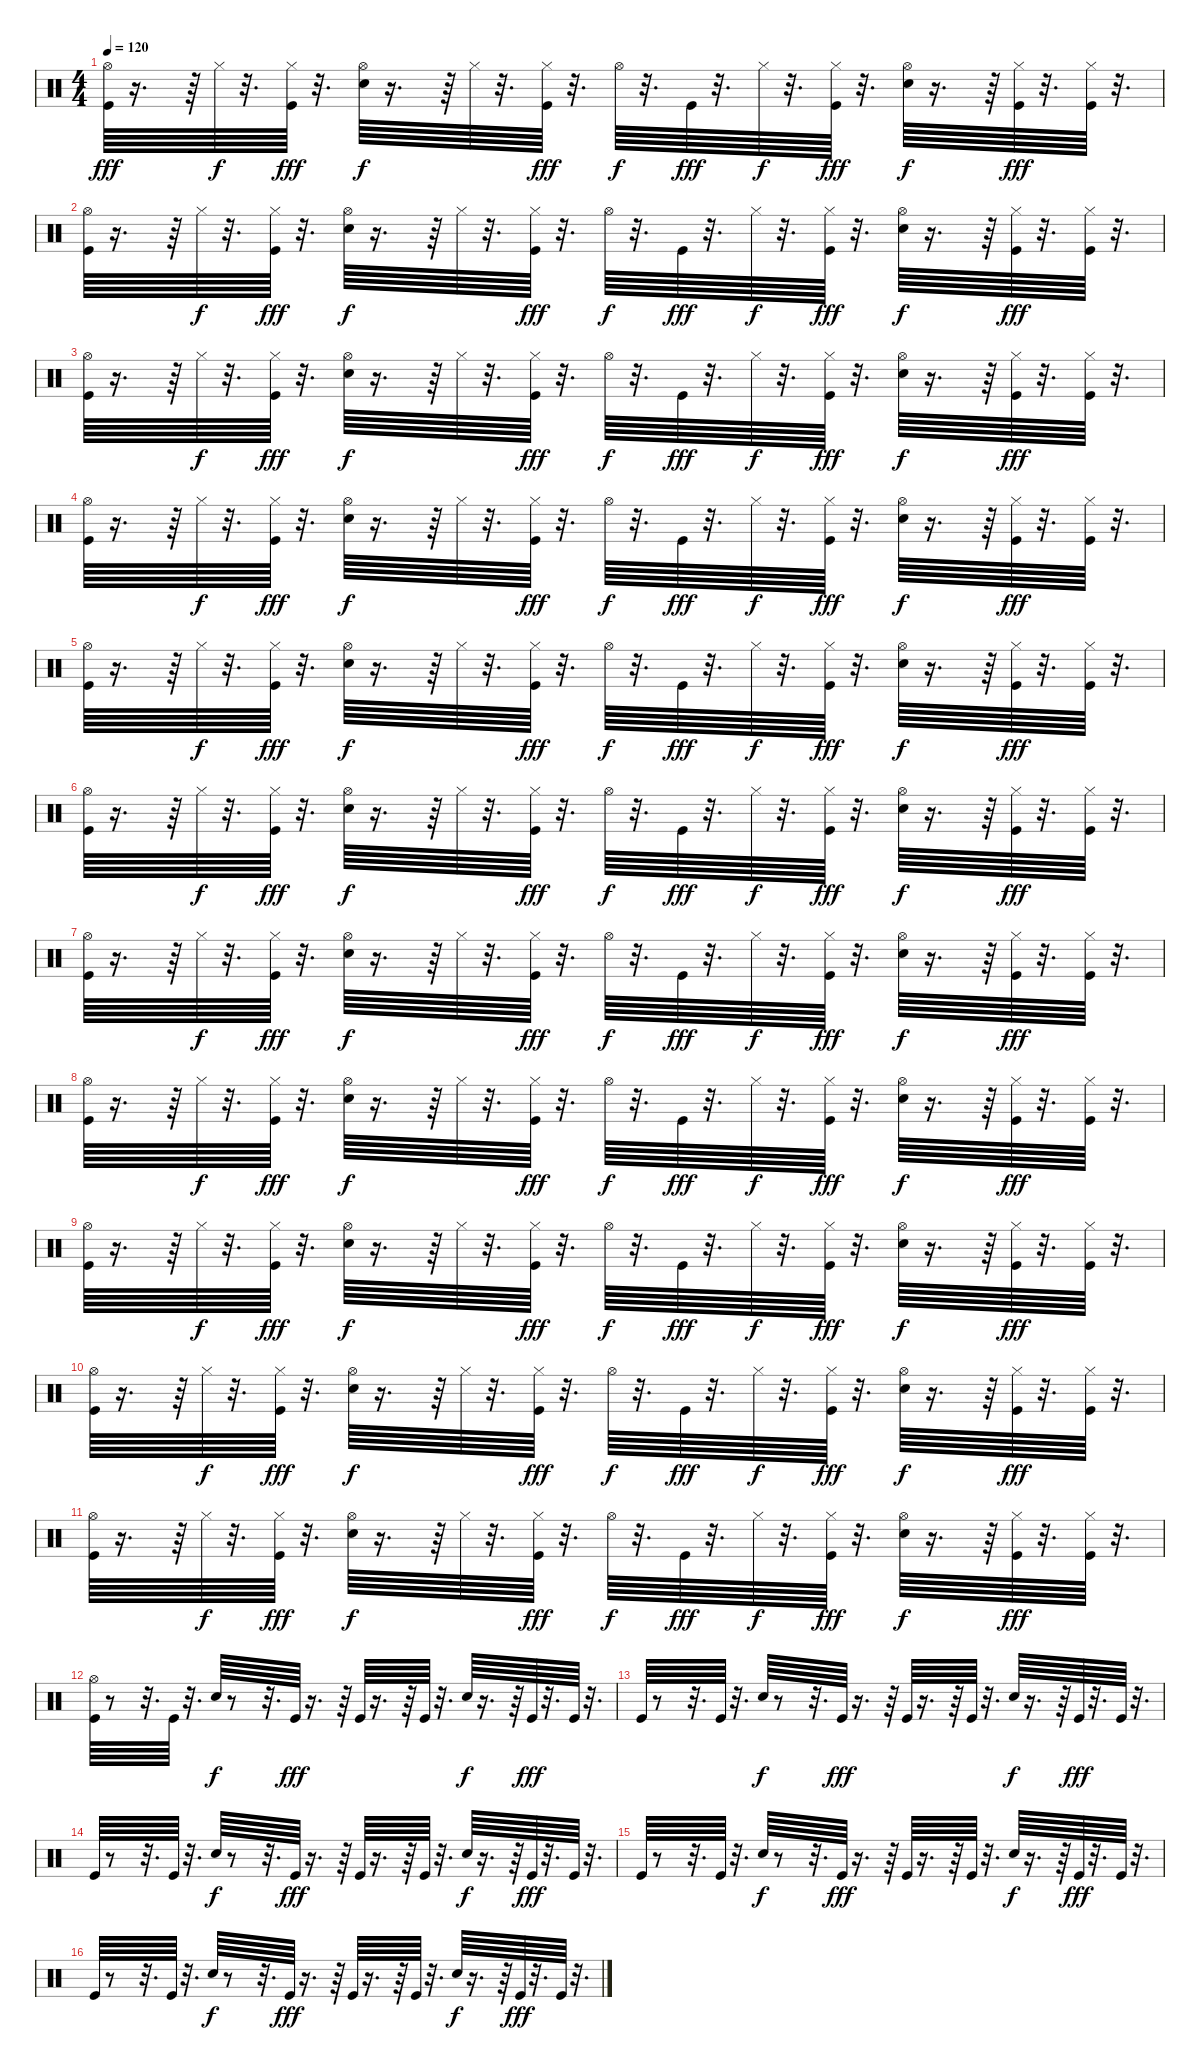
\track "" {instrument percussion}
\staff {score}
\articulation defaults
\ts (4 4)
\tempo 120
\clef neutral
\ks c
("Kick (hit)" "Hi-Hat (open)").64{dy fff} r.16{d} r.64 "Hi-Hat (closed)".64{dy f} r.32{d} ("Kick (hit)" "Hi-Hat (closed)").64{dy fff} r.32{d} ("Snare (hit) 2" "Hi-Hat (open)").64{dy f} r.16{d} r.64 "Hi-Hat (closed)".64 r.32{d} ("Kick (hit)" "Hi-Hat (closed)").64{dy fff} r.32{d} "Hi-Hat (open)".64{dy f} r.32{d} "Kick (hit)".64{dy fff} r.32{d} "Hi-Hat (closed)".64{dy f} r.32{d} ("Kick (hit)" "Hi-Hat (closed)").64{dy fff} r.32{d} ("Snare (hit) 2" "Hi-Hat (open)").64{dy f} r.16{d} r.64 ("Kick (hit)" "Hi-Hat (closed)").64{dy fff} r.32{d} ("Kick (hit)" "Hi-Hat (closed)").64 r.32{d} |
("Kick (hit)" "Hi-Hat (open)").64 r.16{d} r.64 "Hi-Hat (closed)".64{dy f} r.32{d} ("Kick (hit)" "Hi-Hat (closed)").64{dy fff} r.32{d} ("Snare (hit) 2" "Hi-Hat (open)").64{dy f} r.16{d} r.64 "Hi-Hat (closed)".64 r.32{d} ("Kick (hit)" "Hi-Hat (closed)").64{dy fff} r.32{d} "Hi-Hat (open)".64{dy f} r.32{d} "Kick (hit)".64{dy fff} r.32{d} "Hi-Hat (closed)".64{dy f} r.32{d} ("Kick (hit)" "Hi-Hat (closed)").64{dy fff} r.32{d} ("Snare (hit) 2" "Hi-Hat (open)").64{dy f} r.16{d} r.64 ("Kick (hit)" "Hi-Hat (closed)").64{dy fff} r.32{d} ("Kick (hit)" "Hi-Hat (closed)").64 r.32{d} |
("Kick (hit)" "Hi-Hat (open)").64 r.16{d} r.64 "Hi-Hat (closed)".64{dy f} r.32{d} ("Kick (hit)" "Hi-Hat (closed)").64{dy fff} r.32{d} ("Snare (hit) 2" "Hi-Hat (open)").64{dy f} r.16{d} r.64 "Hi-Hat (closed)".64 r.32{d} ("Kick (hit)" "Hi-Hat (closed)").64{dy fff} r.32{d} "Hi-Hat (open)".64{dy f} r.32{d} "Kick (hit)".64{dy fff} r.32{d} "Hi-Hat (closed)".64{dy f} r.32{d} ("Kick (hit)" "Hi-Hat (closed)").64{dy fff} r.32{d} ("Snare (hit) 2" "Hi-Hat (open)").64{dy f} r.16{d} r.64 ("Kick (hit)" "Hi-Hat (closed)").64{dy fff} r.32{d} ("Kick (hit)" "Hi-Hat (closed)").64 r.32{d} |
("Kick (hit)" "Hi-Hat (open)").64 r.16{d} r.64 "Hi-Hat (closed)".64{dy f} r.32{d} ("Kick (hit)" "Hi-Hat (closed)").64{dy fff} r.32{d} ("Snare (hit) 2" "Hi-Hat (open)").64{dy f} r.16{d} r.64 "Hi-Hat (closed)".64 r.32{d} ("Kick (hit)" "Hi-Hat (closed)").64{dy fff} r.32{d} "Hi-Hat (open)".64{dy f} r.32{d} "Kick (hit)".64{dy fff} r.32{d} "Hi-Hat (closed)".64{dy f} r.32{d} ("Kick (hit)" "Hi-Hat (closed)").64{dy fff} r.32{d} ("Snare (hit) 2" "Hi-Hat (open)").64{dy f} r.16{d} r.64 ("Kick (hit)" "Hi-Hat (closed)").64{dy fff} r.32{d} ("Kick (hit)" "Hi-Hat (closed)").64 r.32{d} |
("Kick (hit)" "Hi-Hat (open)").64 r.16{d} r.64 "Hi-Hat (closed)".64{dy f} r.32{d} ("Kick (hit)" "Hi-Hat (closed)").64{dy fff} r.32{d} ("Snare (hit) 2" "Hi-Hat (open)").64{dy f} r.16{d} r.64 "Hi-Hat (closed)".64 r.32{d} ("Kick (hit)" "Hi-Hat (closed)").64{dy fff} r.32{d} "Hi-Hat (open)".64{dy f} r.32{d} "Kick (hit)".64{dy fff} r.32{d} "Hi-Hat (closed)".64{dy f} r.32{d} ("Kick (hit)" "Hi-Hat (closed)").64{dy fff} r.32{d} ("Snare (hit) 2" "Hi-Hat (open)").64{dy f} r.16{d} r.64 ("Kick (hit)" "Hi-Hat (closed)").64{dy fff} r.32{d} ("Kick (hit)" "Hi-Hat (closed)").64 r.32{d} |
("Kick (hit)" "Hi-Hat (open)").64 r.16{d} r.64 "Hi-Hat (closed)".64{dy f} r.32{d} ("Kick (hit)" "Hi-Hat (closed)").64{dy fff} r.32{d} ("Snare (hit) 2" "Hi-Hat (open)").64{dy f} r.16{d} r.64 "Hi-Hat (closed)".64 r.32{d} ("Kick (hit)" "Hi-Hat (closed)").64{dy fff} r.32{d} "Hi-Hat (open)".64{dy f} r.32{d} "Kick (hit)".64{dy fff} r.32{d} "Hi-Hat (closed)".64{dy f} r.32{d} ("Kick (hit)" "Hi-Hat (closed)").64{dy fff} r.32{d} ("Snare (hit) 2" "Hi-Hat (open)").64{dy f} r.16{d} r.64 ("Kick (hit)" "Hi-Hat (closed)").64{dy fff} r.32{d} ("Kick (hit)" "Hi-Hat (closed)").64 r.32{d} |
("Kick (hit)" "Hi-Hat (open)").64 r.16{d} r.64 "Hi-Hat (closed)".64{dy f} r.32{d} ("Kick (hit)" "Hi-Hat (closed)").64{dy fff} r.32{d} ("Snare (hit) 2" "Hi-Hat (open)").64{dy f} r.16{d} r.64 "Hi-Hat (closed)".64 r.32{d} ("Kick (hit)" "Hi-Hat (closed)").64{dy fff} r.32{d} "Hi-Hat (open)".64{dy f} r.32{d} "Kick (hit)".64{dy fff} r.32{d} "Hi-Hat (closed)".64{dy f} r.32{d} ("Kick (hit)" "Hi-Hat (closed)").64{dy fff} r.32{d} ("Snare (hit) 2" "Hi-Hat (open)").64{dy f} r.16{d} r.64 ("Kick (hit)" "Hi-Hat (closed)").64{dy fff} r.32{d} ("Kick (hit)" "Hi-Hat (closed)").64 r.32{d} |
("Kick (hit)" "Hi-Hat (open)").64 r.16{d} r.64 "Hi-Hat (closed)".64{dy f} r.32{d} ("Kick (hit)" "Hi-Hat (closed)").64{dy fff} r.32{d} ("Snare (hit) 2" "Hi-Hat (open)").64{dy f} r.16{d} r.64 "Hi-Hat (closed)".64 r.32{d} ("Kick (hit)" "Hi-Hat (closed)").64{dy fff} r.32{d} "Hi-Hat (open)".64{dy f} r.32{d} "Kick (hit)".64{dy fff} r.32{d} "Hi-Hat (closed)".64{dy f} r.32{d} ("Kick (hit)" "Hi-Hat (closed)").64{dy fff} r.32{d} ("Snare (hit) 2" "Hi-Hat (open)").64{dy f} r.16{d} r.64 ("Kick (hit)" "Hi-Hat (closed)").64{dy fff} r.32{d} ("Kick (hit)" "Hi-Hat (closed)").64 r.32{d} |
("Kick (hit)" "Hi-Hat (open)").64 r.16{d} r.64 "Hi-Hat (closed)".64{dy f} r.32{d} ("Kick (hit)" "Hi-Hat (closed)").64{dy fff} r.32{d} ("Snare (hit) 2" "Hi-Hat (open)").64{dy f} r.16{d} r.64 "Hi-Hat (closed)".64 r.32{d} ("Kick (hit)" "Hi-Hat (closed)").64{dy fff} r.32{d} "Hi-Hat (open)".64{dy f} r.32{d} "Kick (hit)".64{dy fff} r.32{d} "Hi-Hat (closed)".64{dy f} r.32{d} ("Kick (hit)" "Hi-Hat (closed)").64{dy fff} r.32{d} ("Snare (hit) 2" "Hi-Hat (open)").64{dy f} r.16{d} r.64 ("Kick (hit)" "Hi-Hat (closed)").64{dy fff} r.32{d} ("Kick (hit)" "Hi-Hat (closed)").64 r.32{d} |
("Kick (hit)" "Hi-Hat (open)").64 r.16{d} r.64 "Hi-Hat (closed)".64{dy f} r.32{d} ("Kick (hit)" "Hi-Hat (closed)").64{dy fff} r.32{d} ("Snare (hit) 2" "Hi-Hat (open)").64{dy f} r.16{d} r.64 "Hi-Hat (closed)".64 r.32{d} ("Kick (hit)" "Hi-Hat (closed)").64{dy fff} r.32{d} "Hi-Hat (open)".64{dy f} r.32{d} "Kick (hit)".64{dy fff} r.32{d} "Hi-Hat (closed)".64{dy f} r.32{d} ("Kick (hit)" "Hi-Hat (closed)").64{dy fff} r.32{d} ("Snare (hit) 2" "Hi-Hat (open)").64{dy f} r.16{d} r.64 ("Kick (hit)" "Hi-Hat (closed)").64{dy fff} r.32{d} ("Kick (hit)" "Hi-Hat (closed)").64 r.32{d} |
("Kick (hit)" "Hi-Hat (open)").64 r.16{d} r.64 "Hi-Hat (closed)".64{dy f} r.32{d} ("Kick (hit)" "Hi-Hat (closed)").64{dy fff} r.32{d} ("Snare (hit) 2" "Hi-Hat (open)").64{dy f} r.16{d} r.64 "Hi-Hat (closed)".64 r.32{d} ("Kick (hit)" "Hi-Hat (closed)").64{dy fff} r.32{d} "Hi-Hat (open)".64{dy f} r.32{d} "Kick (hit)".64{dy fff} r.32{d} "Hi-Hat (closed)".64{dy f} r.32{d} ("Kick (hit)" "Hi-Hat (closed)").64{dy fff} r.32{d} ("Snare (hit) 2" "Hi-Hat (open)").64{dy f} r.16{d} r.64 ("Kick (hit)" "Hi-Hat (closed)").64{dy fff} r.32{d} ("Kick (hit)" "Hi-Hat (closed)").64 r.32{d} |
("Kick (hit)" "Hi-Hat (open)").64 r.8 r.32{d} "Kick (hit)".64 r.32{d} "Snare (hit) 2".64{dy f} r.8 r.32{d} "Kick (hit)".64{dy fff} r.16{d} r.64 "Kick (hit)".64 r.16{d} r.64 "Kick (hit)".64 r.32{d} "Snare (hit) 2".64{dy f} r.16{d} r.64 "Kick (hit)".64{dy fff} r.32{d} "Kick (hit)".64 r.32{d} |
"Kick (hit)".64 r.8 r.32{d} "Kick (hit)".64 r.32{d} "Snare (hit) 2".64{dy f} r.8 r.32{d} "Kick (hit)".64{dy fff} r.16{d} r.64 "Kick (hit)".64 r.16{d} r.64 "Kick (hit)".64 r.32{d} "Snare (hit) 2".64{dy f} r.16{d} r.64 "Kick (hit)".64{dy fff} r.32{d} "Kick (hit)".64 r.32{d} |
"Kick (hit)".64 r.8 r.32{d} "Kick (hit)".64 r.32{d} "Snare (hit) 2".64{dy f} r.8 r.32{d} "Kick (hit)".64{dy fff} r.16{d} r.64 "Kick (hit)".64 r.16{d} r.64 "Kick (hit)".64 r.32{d} "Snare (hit) 2".64{dy f} r.16{d} r.64 "Kick (hit)".64{dy fff} r.32{d} "Kick (hit)".64 r.32{d} |
"Kick (hit)".64 r.8 r.32{d} "Kick (hit)".64 r.32{d} "Snare (hit) 2".64{dy f} r.8 r.32{d} "Kick (hit)".64{dy fff} r.16{d} r.64 "Kick (hit)".64 r.16{d} r.64 "Kick (hit)".64 r.32{d} "Snare (hit) 2".64{dy f} r.16{d} r.64 "Kick (hit)".64{dy fff} r.32{d} "Kick (hit)".64 r.32{d} |
"Kick (hit)".64 r.8 r.32{d} "Kick (hit)".64 r.32{d} "Snare (hit) 2".64{dy f} r.8 r.32{d} "Kick (hit)".64{dy fff} r.16{d} r.64 "Kick (hit)".64 r.16{d} r.64 "Kick (hit)".64 r.32{d} "Snare (hit) 2".64{dy f} r.16{d} r.64 "Kick (hit)".64{dy fff} r.32{d} "Kick (hit)".64 r.32{d}
